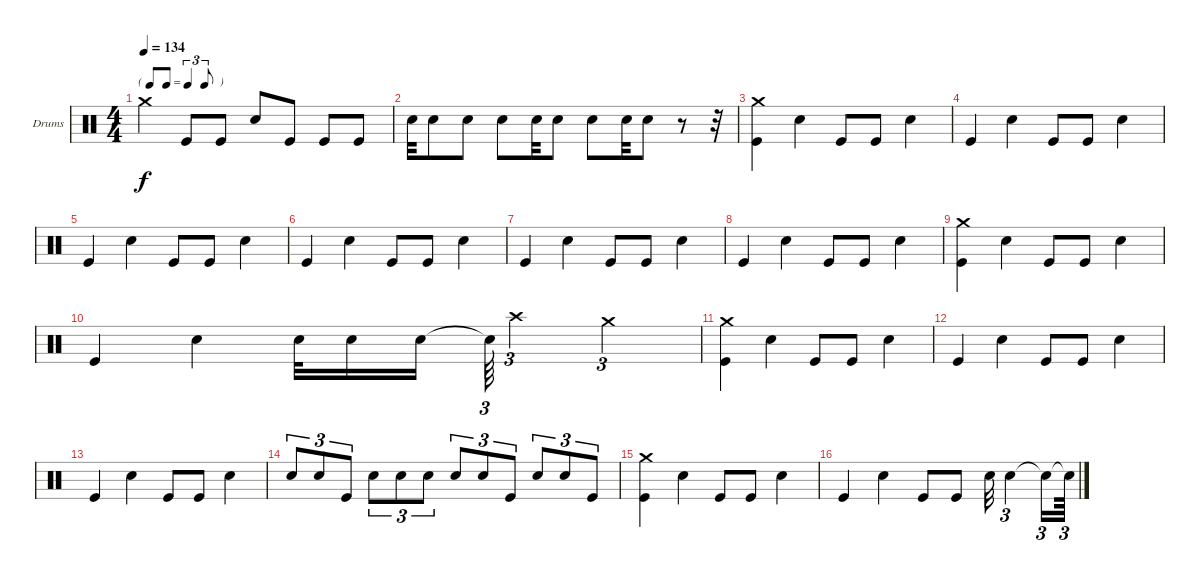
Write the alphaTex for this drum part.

\bracketExtendMode groupsimilarinstruments
\firstSystemTrackNameOrientation horizontal
\otherSystemsTrackNameOrientation horizontal
\track ("Drumkit" "Drums") {instrument percussion}
\staff {score}
\articulation defaults
\ts (4 4)
\tf triplet8th
\tempo 134
\clef neutral
\ks c "Crash medium (hit)".4{dy f} "Kick (hit)".8 "Kick (hit)".8 "Snare (hit) 2".8 "Kick (hit)".8 "Kick (hit)".8 "Kick (hit)".8
|
"Snare (hit) 2".32 "Snare (hit) 2".8 "Snare (hit) 2".8 "Snare (hit) 2".8 "Snare (hit) 2".32 "Snare (hit) 2".8 "Snare (hit) 2".8 "Snare (hit) 2".32 "Snare (hit) 2".8 r.8 r.32 |
("Kick (hit)" "Crash medium (hit)").4 "Snare (hit) 2".4 "Kick (hit)".8 "Kick (hit)".8 "Snare (hit) 2".4 |
"Kick (hit)".4 "Snare (hit) 2".4 "Kick (hit)".8 "Kick (hit)".8 "Snare (hit) 2".4 |
"Kick (hit)".4 "Snare (hit) 2".4 "Kick (hit)".8 "Kick (hit)".8 "Snare (hit) 2".4 |
"Kick (hit)".4 "Snare (hit) 2".4 "Kick (hit)".8 "Kick (hit)".8 "Snare (hit) 2".4 |
"Kick (hit)".4 "Snare (hit) 2".4 "Kick (hit)".8 "Kick (hit)".8 "Snare (hit) 2".4 |
"Kick (hit)".4 "Snare (hit) 2".4 "Kick (hit)".8 "Kick (hit)".8 "Snare (hit) 2".4 |
("Kick (hit)" "Crash medium (hit)").4 "Snare (hit) 2".4 "Kick (hit)".8 "Kick (hit)".8 "Snare (hit) 2".4 |
"Kick (hit)".4 "Snare (hit) 2".4 "Snare (hit) 2".32 "Snare (hit) 2".16 "Snare (hit) 2".16 "Snare (hit) 2"{t}.64{tu (3 2)} "Crash high (hit)".4{tu (3 2)} "Crash medium (hit)".4{tu (3 2)} |
("Kick (hit)" "Crash medium (hit)").4 "Snare (hit) 2".4 "Kick (hit)".8 "Kick (hit)".8 "Snare (hit) 2".4 |
"Kick (hit)".4 "Snare (hit) 2".4 "Kick (hit)".8 "Kick (hit)".8 "Snare (hit) 2".4 |
"Kick (hit)".4 "Snare (hit) 2".4 "Kick (hit)".8 "Kick (hit)".8 "Snare (hit) 2".4 |
"Snare (hit) 2".8{tu (3 2)} "Snare (hit) 2".8{tu (3 2)} "Kick (hit)".8{tu (3 2)} "Snare (hit) 2".8{tu (3 2)} "Snare (hit) 2".8{tu (3 2)} "Snare (hit) 2".8{tu (3 2)} "Snare (hit) 2".8{tu (3 2)} "Snare (hit) 2".8{tu (3 2)} "Kick (hit)".8{tu (3 2)} "Snare (hit) 2".8{tu (3 2)} "Snare (hit) 2".8{tu (3 2)} "Kick (hit)".8{tu (3 2)} |
("Kick (hit)" "Crash medium (hit)").4 "Snare (hit) 2".4 "Kick (hit)".8 "Kick (hit)".8 "Snare (hit) 2".4 |
"Kick (hit)".4 "Snare (hit) 2".4 "Kick (hit)".8 "Kick (hit)".8 "Snare (hit) 2".32 "Snare (hit) 2".4{tu (3 2)} "Snare (hit) 2"{t}.16{tu (3 2)} "Snare (hit) 2"{t}.64{tu (3 2)}
